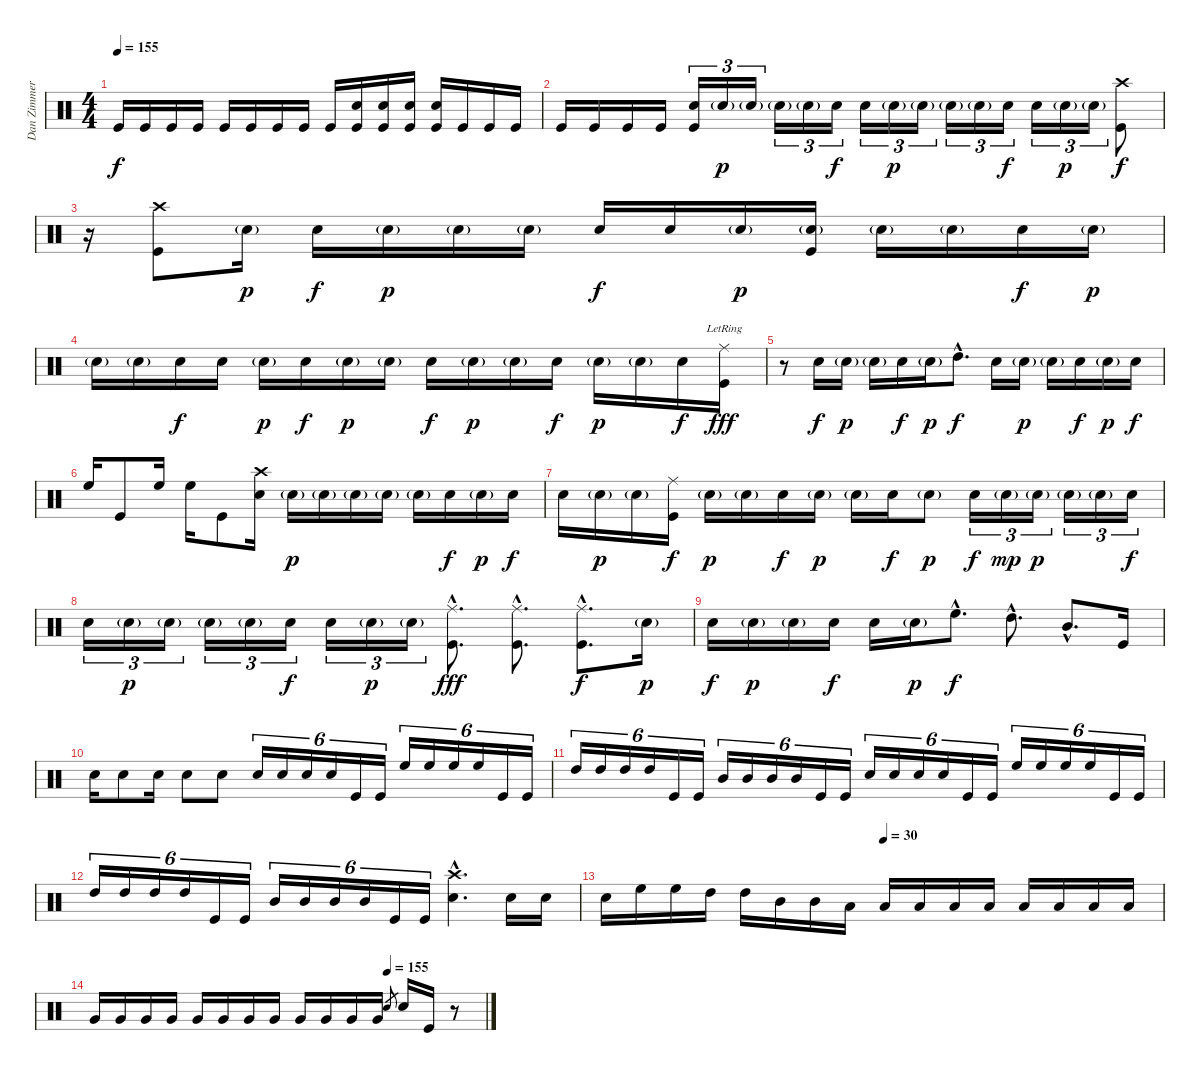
\track ("Dan Zimmerman" "Dan Zimmer") {instrument percussion}
\staff {score}
\articulation defaults
\ts (4 4)
\tempo 155
\clef neutral
\ks c "Kick (hit)".16{dy f} "Kick (hit)".16 "Kick (hit)".16 "Kick (hit)".16 "Kick (hit)".16 "Kick (hit)".16 "Kick (hit)".16 "Kick (hit)".16 "Kick (hit)".16
("Electric Snare (hit)" "Kick (hit)").16 ("Electric Snare (hit)" "Kick (hit)").16 ("Electric Snare (hit)" "Kick (hit)").16 ("Electric Snare (hit)" "Kick (hit)").16 "Kick (hit)".16 "Kick (hit)".16 "Kick (hit)".16 |
"Kick (hit)".16 "Kick (hit)".16 "Kick (hit)".16 "Kick (hit)".16 ("Electric Snare (hit)" "Kick (hit)").16{tu (3 2)} "Electric Snare (hit)"{g}.16{tu (3 2) dy p} "Electric Snare (hit)"{g}.16{tu (3 2)} "Electric Snare (hit)"{g}.16{tu (3 2)} "Electric Snare (hit)"{g}.16{tu (3 2)} "Electric Snare (hit)".16{tu (3 2) dy f} "Electric Snare (hit)".16{tu (3 2)} "Electric Snare (hit)"{g}.16{tu (3 2) dy p} "Electric Snare (hit)"{g}.16{tu (3 2)} "Electric Snare (hit)"{g}.16{tu (3 2)} "Electric Snare (hit)"{g}.16{tu (3 2)} "Electric Snare (hit)".16{tu (3 2) dy f} "Electric Snare (hit)".16{tu (3 2)} "Electric Snare (hit)"{g}.16{tu (3 2) dy p} "Electric Snare (hit)"{g}.16{tu (3 2)} ("Crash high (hit)" "Kick (hit)").8{dy f} |
r.16 ("Crash high (hit)" "Kick (hit)").8 "Electric Snare (hit)"{g}.16{dy p} "Electric Snare (hit)".16{dy f} "Electric Snare (hit)"{g}.16{dy p} "Electric Snare (hit)"{g}.16 "Electric Snare (hit)"{g}.16 "Electric Snare (hit)".16{dy f} "Electric Snare (hit)".16 "Electric Snare (hit)"{g}.16{dy p} ("Electric Snare (hit)"{g} "Kick (hit)").16 "Electric Snare (hit)"{g}.16 "Electric Snare (hit)"{g}.16 "Electric Snare (hit)".16{dy f} "Electric Snare (hit)"{g}.16{dy p} |
"Electric Snare (hit)"{g}.16 "Electric Snare (hit)"{g}.16 "Electric Snare (hit)".16{dy f} "Electric Snare (hit)".16 "Electric Snare (hit)"{g}.16{dy p} "Electric Snare (hit)".16{dy f} "Electric Snare (hit)"{g}.16{dy p} "Electric Snare (hit)"{g}.16 "Electric Snare (hit)".16{dy f} "Electric Snare (hit)"{g}.16{dy p} "Electric Snare (hit)"{g}.16 "Electric Snare (hit)".16{dy f} "Electric Snare (hit)"{g}.16{dy p} "Electric Snare (hit)"{g}.16 "Electric Snare (hit)".16{dy f} ("Ride (middle)"{lr} "Kick (hit)").16{dy fff} |
r.8 "Electric Snare (hit)".16{dy f} "Electric Snare (hit)"{g}.16{dy p} "Electric Snare (hit)"{g}.16 "Electric Snare (hit)".16{dy f} "Electric Snare (hit)"{g}.16{dy p} "High Tom (hit)"{hac}.8{d dy f} "Electric Snare (hit)".16 "Electric Snare (hit)"{g}.16{dy p} "Electric Snare (hit)"{g}.16 "Electric Snare (hit)".16{dy f} "Electric Snare (hit)"{g}.16{dy p} "Electric Snare (hit)".16{dy f} |
"High Floor Tom (hit)".16 "Kick (hit)".8 "High Floor Tom (hit)".16 "High Floor Tom (hit)".16 "Kick (hit)".8 ("Crash high (hit)" "Electric Snare (hit)").16 "Electric Snare (hit)"{g}.16{dy p} "Electric Snare (hit)"{g}.16 "Electric Snare (hit)"{g}.16 "Electric Snare (hit)"{g}.16 "Electric Snare (hit)"{g}.16 "Electric Snare (hit)".16{dy f} "Electric Snare (hit)"{g}.16{dy p} "Electric Snare (hit)".16{dy f} |
"Electric Snare (hit)".16 "Electric Snare (hit)"{g}.16{dy p} "Electric Snare (hit)"{g}.16 ("Ride (middle)" "Kick (hit)").16{dy f} "Electric Snare (hit)"{g}.16{dy p} "Electric Snare (hit)"{g}.16 "Electric Snare (hit)".16{dy f} "Electric Snare (hit)"{g}.16{dy p} "Electric Snare (hit)"{g}.16 "Electric Snare (hit)".16{dy f} "Electric Snare (hit)"{g}.8{dy p} "Electric Snare (hit)".16{tu (3 2) dy f} "Electric Snare (hit)"{g}.16{tu (3 2) dy mp} "Electric Snare (hit)"{g}.16{tu (3 2) dy p} "Electric Snare (hit)"{g}.16{tu (3 2)} "Electric Snare (hit)"{g}.16{tu (3 2)} "Electric Snare (hit)".16{tu (3 2) dy f} |
"Electric Snare (hit)".16{tu (3 2)} "Electric Snare (hit)"{g}.16{tu (3 2) dy p} "Electric Snare (hit)"{g}.16{tu (3 2)} "Electric Snare (hit)"{g}.16{tu (3 2)} "Electric Snare (hit)"{g}.16{tu (3 2)} "Electric Snare (hit)".16{tu (3 2) dy f} "Electric Snare (hit)".16{tu (3 2)} "Electric Snare (hit)"{g}.16{tu (3 2) dy p} "Electric Snare (hit)"{g}.16{tu (3 2)} ("Ride (middle)"{hac} "Kick (hit)"{hac}).8{d dy fff} ("Ride (middle)"{hac} "Kick (hit)"{hac}).8{d} ("Ride (middle)"{hac} "Kick (hit)"{hac}).8{d dy f} "Electric Snare (hit)"{g}.16{dy p} |
"Electric Snare (hit)".16{dy f} "Electric Snare (hit)"{g}.16{dy p} "Electric Snare (hit)"{g}.16 "Electric Snare (hit)".16{dy f} "Electric Snare (hit)".16 "Electric Snare (hit)"{g}.16{dy p} "High Floor Tom (hit)"{hac}.8{d dy f} "High Tom (hit)"{hac}.8{d} "Mid Tom (hit)"{hac}.8{d} "Kick (hit)".16 |
"Electric Snare (hit)".16 "Electric Snare (hit)".8 "Electric Snare (hit)".16 "Electric Snare (hit)".8 "Electric Snare (hit)".8 "Electric Snare (hit)".16{tu (6 4)} "Electric Snare (hit)".16{tu (6 4)} "Electric Snare (hit)".16{tu (6 4)} "Electric Snare (hit)".16{tu (6 4)} "Kick (hit)".16{tu (6 4)} "Kick (hit)".16{tu (6 4)} "High Floor Tom (hit)".16{tu (6 4)} "High Floor Tom (hit)".16{tu (6 4)} "High Floor Tom (hit)".16{tu (6 4)} "High Floor Tom (hit)".16{tu (6 4)} "Kick (hit)".16{tu (6 4)} "Kick (hit)".16{tu (6 4)} |
"High Tom (hit)".16{tu (6 4)} "High Tom (hit)".16{tu (6 4)} "High Tom (hit)".16{tu (6 4)} "High Tom (hit)".16{tu (6 4)} "Kick (hit)".16{tu (6 4)} "Kick (hit)".16{tu (6 4)} "Mid Tom (hit)".16{tu (6 4)} "Mid Tom (hit)".16{tu (6 4)} "Mid Tom (hit)".16{tu (6 4)} "Mid Tom (hit)".16{tu (6 4)} "Kick (hit)".16{tu (6 4)} "Kick (hit)".16{tu (6 4)} "Electric Snare (hit)".16{tu (6 4)} "Electric Snare (hit)".16{tu (6 4)} "Electric Snare (hit)".16{tu (6 4)} "Electric Snare (hit)".16{tu (6 4)} "Kick (hit)".16{tu (6 4)} "Kick (hit)".16{tu (6 4)} "High Floor Tom (hit)".16{tu (6 4)} "High Floor Tom (hit)".16{tu (6 4)} "High Floor Tom (hit)".16{tu (6 4)} "High Floor Tom (hit)".16{tu (6 4)} "Kick (hit)".16{tu (6 4)} "Kick (hit)".16{tu (6 4)} |
"High Tom (hit)".16{tu (6 4)} "High Tom (hit)".16{tu (6 4)} "High Tom (hit)".16{tu (6 4)} "High Tom (hit)".16{tu (6 4)} "Kick (hit)".16{tu (6 4)} "Kick (hit)".16{tu (6 4)} "Mid Tom (hit)".16{tu (6 4)} "Mid Tom (hit)".16{tu (6 4)} "Mid Tom (hit)".16{tu (6 4)} "Mid Tom (hit)".16{tu (6 4)} "Kick (hit)".16{tu (6 4)} "Kick (hit)".16{tu (6 4)} ("Crash high (hit)"{hac} "Electric Snare (hit)"{hac}).4{d} "Electric Snare (hit)".16 "Electric Snare (hit)".16 |
\tempo (30 0.5)
"Electric Snare (hit)".16 "High Floor Tom (hit)".16 "High Floor Tom (hit)".16 "High Tom (hit)".16 "High Tom (hit)".16 "Mid Tom (hit)".16 "Mid Tom (hit)".16 "Low Tom (hit)".16 "Low Tom (hit)".16 "Low Tom (hit)".16 "Low Tom (hit)".16 "Low Tom (hit)".16 "Low Tom (hit)".16 "Low Tom (hit)".16 "Low Tom (hit)".16 "Low Tom (hit)".16 |
\tempo (155 0.75)
"Very Low Tom (hit)".16 "Very Low Tom (hit)".16 "Very Low Tom (hit)".16 "Very Low Tom (hit)".16 "Very Low Tom (hit)".16 "Very Low Tom (hit)".16 "Very Low Tom (hit)".16 "Very Low Tom (hit)".16 "Very Low Tom (hit)".16 "Very Low Tom (hit)".16 "Very Low Tom (hit)".16 "Very Low Tom (hit)".16 "Electric Snare (hit)".8{gr} "Electric Snare (hit)".16 "Kick (hit)".16 r.8
